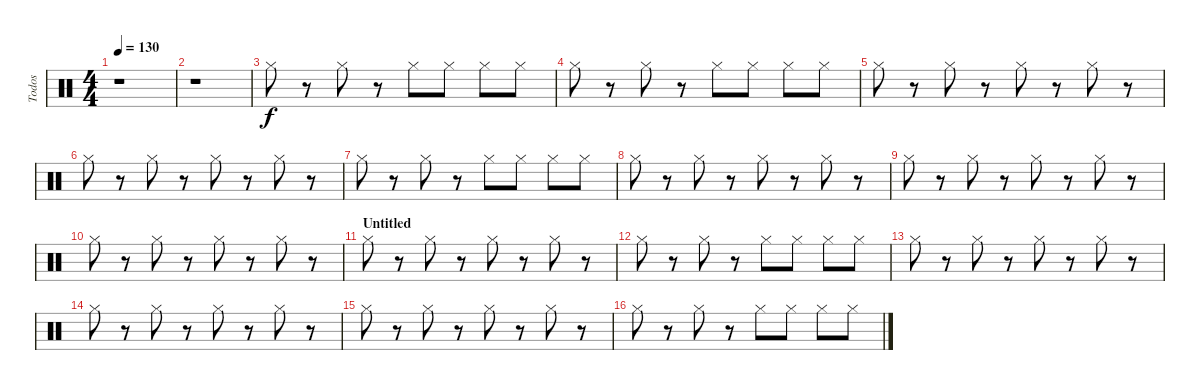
\track ("Todos" "Todos") {instrument percussion}
\staff {score}
\articulation defaults
\ts (4 4)
\tempo 130
\clef neutral
\ks c
r.1{dy f} |
r.1 |
"Hi-Hat (closed)".8 r.8 "Hi-Hat (closed)".8 r.8 "Hi-Hat (closed)".8 "Hi-Hat (closed)".8 "Hi-Hat (closed)".8 "Hi-Hat (closed)".8 |
"Hi-Hat (closed)".8 r.8 "Hi-Hat (closed)".8 r.8 "Hi-Hat (closed)".8 "Hi-Hat (closed)".8 "Hi-Hat (closed)".8 "Hi-Hat (closed)".8 |
"Hi-Hat (closed)".8 r.8 "Hi-Hat (closed)".8 r.8 "Hi-Hat (closed)".8 r.8 "Hi-Hat (closed)".8 r.8 |
"Hi-Hat (closed)".8 r.8 "Hi-Hat (closed)".8 r.8 "Hi-Hat (closed)".8 r.8 "Hi-Hat (closed)".8 r.8 |
"Hi-Hat (closed)".8 r.8 "Hi-Hat (closed)".8 r.8 "Hi-Hat (closed)".8 "Hi-Hat (closed)".8 "Hi-Hat (closed)".8 "Hi-Hat (closed)".8 |
"Hi-Hat (closed)".8 r.8 "Hi-Hat (closed)".8 r.8 "Hi-Hat (closed)".8 r.8 "Hi-Hat (closed)".8 r.8 |
"Hi-Hat (closed)".8 r.8 "Hi-Hat (closed)".8 r.8 "Hi-Hat (closed)".8 r.8 "Hi-Hat (closed)".8 r.8 |
"Hi-Hat (closed)".8 r.8 "Hi-Hat (closed)".8 r.8 "Hi-Hat (closed)".8 r.8 "Hi-Hat (closed)".8 r.8 |
\section ("" "Untitled")
"Hi-Hat (closed)".8 r.8 "Hi-Hat (closed)".8 r.8 "Hi-Hat (closed)".8 r.8 "Hi-Hat (closed)".8 r.8 |
"Hi-Hat (closed)".8 r.8 "Hi-Hat (closed)".8 r.8 "Hi-Hat (closed)".8 "Hi-Hat (closed)".8 "Hi-Hat (closed)".8 "Hi-Hat (closed)".8 |
"Hi-Hat (closed)".8 r.8 "Hi-Hat (closed)".8 r.8 "Hi-Hat (closed)".8 r.8 "Hi-Hat (closed)".8 r.8 |
"Hi-Hat (closed)".8 r.8 "Hi-Hat (closed)".8 r.8 "Hi-Hat (closed)".8 r.8 "Hi-Hat (closed)".8 r.8 |
"Hi-Hat (closed)".8 r.8 "Hi-Hat (closed)".8 r.8 "Hi-Hat (closed)".8 r.8 "Hi-Hat (closed)".8 r.8 |
"Hi-Hat (closed)".8 r.8 "Hi-Hat (closed)".8 r.8 "Hi-Hat (closed)".8 "Hi-Hat (closed)".8 "Hi-Hat (closed)".8 "Hi-Hat (closed)".8
